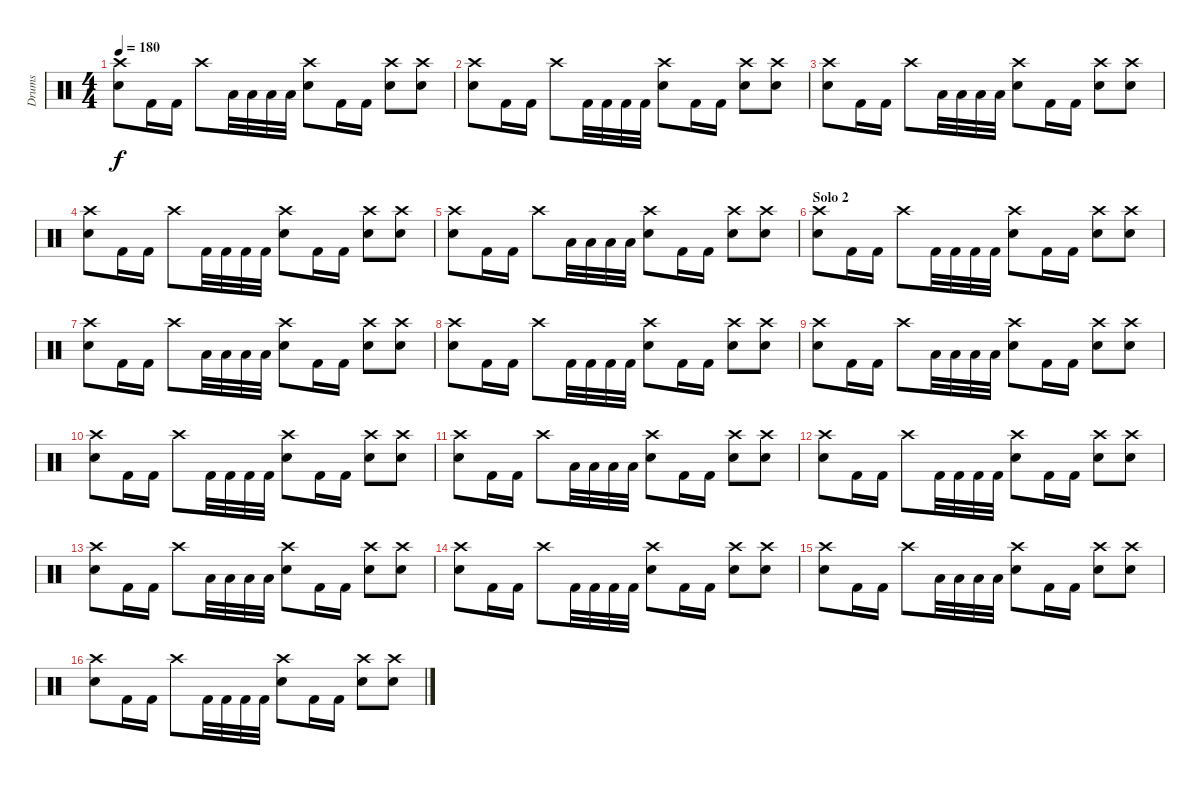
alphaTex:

\track ("Drums" "Drums") {instrument percussion}
\staff {score}
\articulation defaults
\ts (4 4)
\tempo 180
\clef neutral
\ks c
("Crash high (hit)" "Electric Snare (hit)").8{dy f} "Kick (hit) 2".16 "Kick (hit) 2".16 "Crash high (hit)".8 "Low Tom (hit)".32 "Low Tom (hit)".32 "Low Tom (hit)".32 "Low Tom (hit)".32 ("Crash high (hit)" "Electric Snare (hit)").8 "Kick (hit) 2".16 "Kick (hit) 2".16 ("Crash high (hit)" "Electric Snare (hit)").8 ("Crash high (hit)" "Electric Snare (hit)").8 |
("Crash high (hit)" "Electric Snare (hit)").8 "Kick (hit) 2".16 "Kick (hit) 2".16 "Crash high (hit)".8 "Kick (hit) 2".32 "Kick (hit) 2".32 "Kick (hit) 2".32 "Kick (hit) 2".32 ("Crash high (hit)" "Electric Snare (hit)").8 "Kick (hit) 2".16 "Kick (hit) 2".16 ("Crash high (hit)" "Electric Snare (hit)").8 ("Crash high (hit)" "Electric Snare (hit)").8 |
("Crash high (hit)" "Electric Snare (hit)").8 "Kick (hit) 2".16 "Kick (hit) 2".16 "Crash high (hit)".8 "Low Tom (hit)".32 "Low Tom (hit)".32 "Low Tom (hit)".32 "Low Tom (hit)".32 ("Crash high (hit)" "Electric Snare (hit)").8 "Kick (hit) 2".16 "Kick (hit) 2".16 ("Crash high (hit)" "Electric Snare (hit)").8 ("Crash high (hit)" "Electric Snare (hit)").8 |
("Crash high (hit)" "Electric Snare (hit)").8 "Kick (hit) 2".16 "Kick (hit) 2".16 "Crash high (hit)".8 "Kick (hit) 2".32 "Kick (hit) 2".32 "Kick (hit) 2".32 "Kick (hit) 2".32 ("Crash high (hit)" "Electric Snare (hit)").8 "Kick (hit) 2".16 "Kick (hit) 2".16 ("Crash high (hit)" "Electric Snare (hit)").8 ("Crash high (hit)" "Electric Snare (hit)").8 |
("Crash high (hit)" "Electric Snare (hit)").8 "Kick (hit) 2".16 "Kick (hit) 2".16 "Crash high (hit)".8 "Low Tom (hit)".32 "Low Tom (hit)".32 "Low Tom (hit)".32 "Low Tom (hit)".32 ("Crash high (hit)" "Electric Snare (hit)").8 "Kick (hit) 2".16 "Kick (hit) 2".16 ("Crash high (hit)" "Electric Snare (hit)").8 ("Crash high (hit)" "Electric Snare (hit)").8 |
\section ("" "Solo 2")
("Crash high (hit)" "Electric Snare (hit)").8 "Kick (hit) 2".16 "Kick (hit) 2".16 "Crash high (hit)".8 "Kick (hit) 2".32 "Kick (hit) 2".32 "Kick (hit) 2".32 "Kick (hit) 2".32 ("Crash high (hit)" "Electric Snare (hit)").8 "Kick (hit) 2".16 "Kick (hit) 2".16 ("Crash high (hit)" "Electric Snare (hit)").8 ("Crash high (hit)" "Electric Snare (hit)").8 |
("Crash high (hit)" "Electric Snare (hit)").8 "Kick (hit) 2".16 "Kick (hit) 2".16 "Crash high (hit)".8 "Low Tom (hit)".32 "Low Tom (hit)".32 "Low Tom (hit)".32 "Low Tom (hit)".32 ("Crash high (hit)" "Electric Snare (hit)").8 "Kick (hit) 2".16 "Kick (hit) 2".16 ("Crash high (hit)" "Electric Snare (hit)").8 ("Crash high (hit)" "Electric Snare (hit)").8 |
("Crash high (hit)" "Electric Snare (hit)").8 "Kick (hit) 2".16 "Kick (hit) 2".16 "Crash high (hit)".8 "Kick (hit) 2".32 "Kick (hit) 2".32 "Kick (hit) 2".32 "Kick (hit) 2".32 ("Crash high (hit)" "Electric Snare (hit)").8 "Kick (hit) 2".16 "Kick (hit) 2".16 ("Crash high (hit)" "Electric Snare (hit)").8 ("Crash high (hit)" "Electric Snare (hit)").8 |
("Crash high (hit)" "Electric Snare (hit)").8 "Kick (hit) 2".16 "Kick (hit) 2".16 "Crash high (hit)".8 "Low Tom (hit)".32 "Low Tom (hit)".32 "Low Tom (hit)".32 "Low Tom (hit)".32 ("Crash high (hit)" "Electric Snare (hit)").8 "Kick (hit) 2".16 "Kick (hit) 2".16 ("Crash high (hit)" "Electric Snare (hit)").8 ("Crash high (hit)" "Electric Snare (hit)").8 |
("Crash high (hit)" "Electric Snare (hit)").8 "Kick (hit) 2".16 "Kick (hit) 2".16 "Crash high (hit)".8 "Kick (hit) 2".32 "Kick (hit) 2".32 "Kick (hit) 2".32 "Kick (hit) 2".32 ("Crash high (hit)" "Electric Snare (hit)").8 "Kick (hit) 2".16 "Kick (hit) 2".16 ("Crash high (hit)" "Electric Snare (hit)").8 ("Crash high (hit)" "Electric Snare (hit)").8 |
("Crash high (hit)" "Electric Snare (hit)").8 "Kick (hit) 2".16 "Kick (hit) 2".16 "Crash high (hit)".8 "Low Tom (hit)".32 "Low Tom (hit)".32 "Low Tom (hit)".32 "Low Tom (hit)".32 ("Crash high (hit)" "Electric Snare (hit)").8 "Kick (hit) 2".16 "Kick (hit) 2".16 ("Crash high (hit)" "Electric Snare (hit)").8 ("Crash high (hit)" "Electric Snare (hit)").8 |
("Crash high (hit)" "Electric Snare (hit)").8 "Kick (hit) 2".16 "Kick (hit) 2".16 "Crash high (hit)".8 "Kick (hit) 2".32 "Kick (hit) 2".32 "Kick (hit) 2".32 "Kick (hit) 2".32 ("Crash high (hit)" "Electric Snare (hit)").8 "Kick (hit) 2".16 "Kick (hit) 2".16 ("Crash high (hit)" "Electric Snare (hit)").8 ("Crash high (hit)" "Electric Snare (hit)").8 |
("Crash high (hit)" "Electric Snare (hit)").8 "Kick (hit) 2".16 "Kick (hit) 2".16 "Crash high (hit)".8 "Low Tom (hit)".32 "Low Tom (hit)".32 "Low Tom (hit)".32 "Low Tom (hit)".32 ("Crash high (hit)" "Electric Snare (hit)").8 "Kick (hit) 2".16 "Kick (hit) 2".16 ("Crash high (hit)" "Electric Snare (hit)").8 ("Crash high (hit)" "Electric Snare (hit)").8 |
("Crash high (hit)" "Electric Snare (hit)").8 "Kick (hit) 2".16 "Kick (hit) 2".16 "Crash high (hit)".8 "Kick (hit) 2".32 "Kick (hit) 2".32 "Kick (hit) 2".32 "Kick (hit) 2".32 ("Crash high (hit)" "Electric Snare (hit)").8 "Kick (hit) 2".16 "Kick (hit) 2".16 ("Crash high (hit)" "Electric Snare (hit)").8 ("Crash high (hit)" "Electric Snare (hit)").8 |
("Crash high (hit)" "Electric Snare (hit)").8 "Kick (hit) 2".16 "Kick (hit) 2".16 "Crash high (hit)".8 "Low Tom (hit)".32 "Low Tom (hit)".32 "Low Tom (hit)".32 "Low Tom (hit)".32 ("Crash high (hit)" "Electric Snare (hit)").8 "Kick (hit) 2".16 "Kick (hit) 2".16 ("Crash high (hit)" "Electric Snare (hit)").8 ("Crash high (hit)" "Electric Snare (hit)").8 |
("Crash high (hit)" "Electric Snare (hit)").8 "Kick (hit) 2".16 "Kick (hit) 2".16 "Crash high (hit)".8 "Kick (hit) 2".32 "Kick (hit) 2".32 "Kick (hit) 2".32 "Kick (hit) 2".32 ("Crash high (hit)" "Electric Snare (hit)").8 "Kick (hit) 2".16 "Kick (hit) 2".16 ("Crash high (hit)" "Electric Snare (hit)").8 ("Crash high (hit)" "Electric Snare (hit)").8
